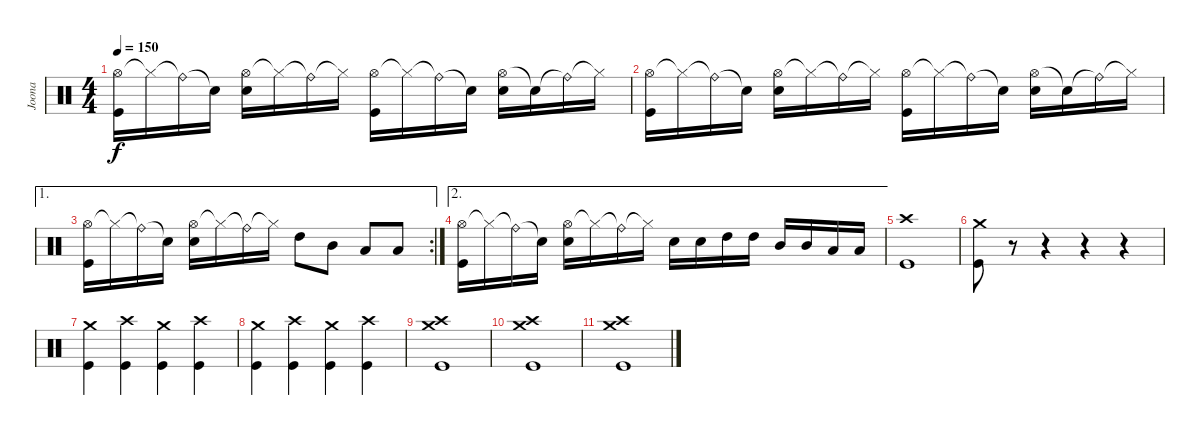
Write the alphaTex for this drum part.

\track ("Joona" "Joona") {instrument percussion}
\staff {score}
\articulation defaults
\ts (4 4)
\tempo 150
\clef neutral
\ks c
("Hi-Hat (open)" "Kick (hit)").16{dy f} "Hi-Hat (closed)"{t}.16 "Ride (bell)"{t}.16 "Snare (hit)"{t}.16 ("Hi-Hat (open)" "Snare (hit) 2").16 "Hi-Hat (closed)"{t}.16 "Ride (bell)"{t}.16 "Hi-Hat (closed)"{t}.16 ("Hi-Hat (open)" "Kick (hit)").16 "Hi-Hat (closed)"{t}.16 "Ride (bell)"{t}.16 "Snare (hit)"{t}.16 ("Hi-Hat (open)" "Snare (hit) 2").16 "Snare (hit)"{t}.16 "Ride (bell)"{t}.16 "Hi-Hat (closed)"{t}.16 |
("Hi-Hat (open)" "Kick (hit)").16 "Hi-Hat (closed)"{t}.16 "Ride (bell)"{t}.16 "Snare (hit)"{t}.16 ("Hi-Hat (open)" "Snare (hit) 2").16 "Hi-Hat (closed)"{t}.16 "Ride (bell)"{t}.16 "Hi-Hat (closed)"{t}.16 ("Hi-Hat (open)" "Kick (hit)").16 "Hi-Hat (closed)"{t}.16 "Ride (bell)"{t}.16 "Snare (hit)"{t}.16 ("Hi-Hat (open)" "Snare (hit) 2").16 "Snare (hit)"{t}.16 "Ride (bell)"{t}.16 "Hi-Hat (closed)"{t}.16 |
\ae 1
\rc 2
("Hi-Hat (open)" "Kick (hit)").16 "Hi-Hat (closed)"{t}.16 "Ride (bell)"{t}.16 "Snare (hit)"{t}.16 ("Hi-Hat (open)" "Snare (hit) 2").16 "Hi-Hat (closed)"{t}.16 "Ride (bell)"{t}.16 "Hi-Hat (closed)"{t}.16 "High Tom (hit)".8 "Mid Tom (hit)".8 "Low Tom (hit)".8 "Low Tom (hit)".8 |
\ae 2
("Hi-Hat (open)" "Kick (hit)").16 "Hi-Hat (closed)"{t}.16 "Ride (bell)"{t}.16 "Snare (hit)"{t}.16 ("Hi-Hat (open)" "Snare (hit) 2").16 "Hi-Hat (closed)"{t}.16 "Ride (bell)"{t}.16 "Hi-Hat (closed)"{t}.16 "Snare (hit) 2".16 "Snare (hit) 2".16 "High Tom (hit)".16 "High Tom (hit)".16 "Mid Tom (hit)".16 "Mid Tom (hit)".16 "Low Tom (hit)".16 "Low Tom (hit)".16 |
("Crash high (hit)" "Kick (hit)").1 |
("Crash medium (hit)" "Kick (hit)").8 r.8 r.4 r.4 r.4 |
("Crash medium (hit)" "Kick (hit)").4 ("Crash high (hit)" "Kick (hit)").4 ("Crash medium (hit)" "Kick (hit)").4 ("Crash high (hit)" "Kick (hit)").4 |
("Crash medium (hit)" "Kick (hit)").4 ("Crash high (hit)" "Kick (hit)").4 ("Crash medium (hit)" "Kick (hit)").4 ("Crash high (hit)" "Kick (hit)").4 |
("Crash high (hit)" "Crash medium (hit)" "Kick (hit)").1 |
("Crash high (hit)" "Crash medium (hit)" "Kick (hit)").1 |
("Crash high (hit)" "Crash medium (hit)" "Kick (hit)").1
